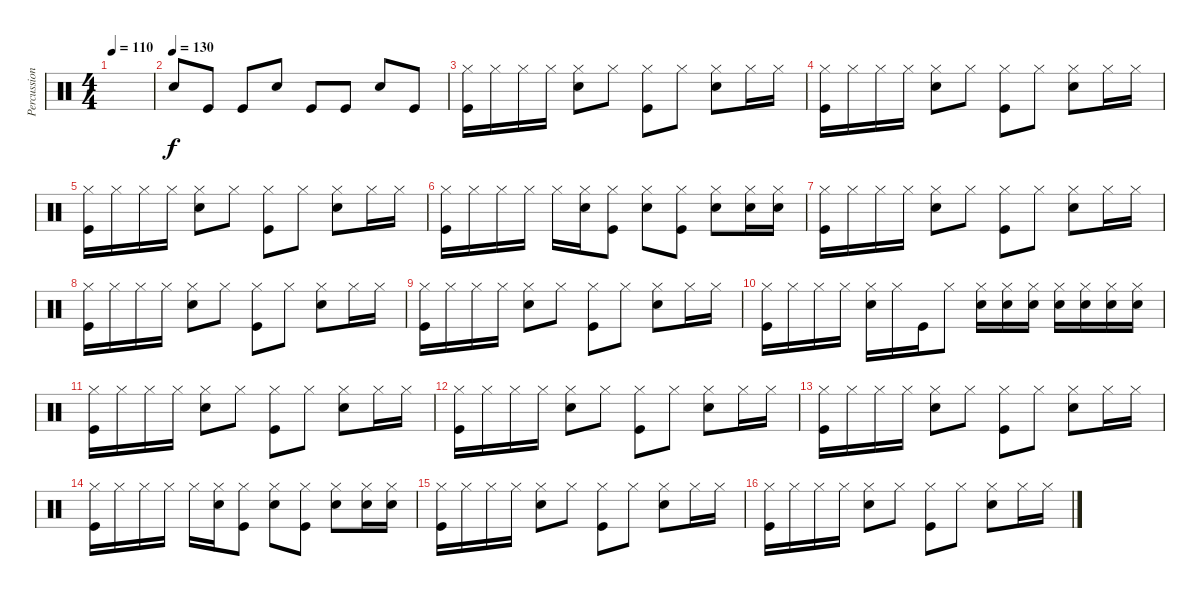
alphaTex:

\track ("Percussions" "Percussion") {instrument percussion}
\staff {score}
\articulation defaults
\ts (4 4)
\tempo 110
\clef neutral
\ks c
|
\tempo (130)
"Snare (hit) 2".8 "Kick (hit)".8 "Kick (hit)".8 "Snare (hit) 2".8 "Kick (hit)".8 "Kick (hit)".8 "Snare (hit) 2".8 "Kick (hit)".8 |
("Hi-Hat (closed)" "Kick (hit)").16 "Hi-Hat (closed)".16 "Hi-Hat (closed)".16 "Hi-Hat (closed)".16 ("Hi-Hat (closed)" "Snare (hit) 2").8 "Hi-Hat (closed)".8 ("Hi-Hat (closed)" "Kick (hit)").8 "Hi-Hat (closed)".8 ("Hi-Hat (closed)" "Snare (hit) 2").8 "Hi-Hat (closed)".16 "Hi-Hat (closed)".16 |
("Hi-Hat (closed)" "Kick (hit)").16 "Hi-Hat (closed)".16 "Hi-Hat (closed)".16 "Hi-Hat (closed)".16 ("Hi-Hat (closed)" "Snare (hit) 2").8 "Hi-Hat (closed)".8 ("Hi-Hat (closed)" "Kick (hit)").8 "Hi-Hat (closed)".8 ("Hi-Hat (closed)" "Snare (hit) 2").8 "Hi-Hat (closed)".16 "Hi-Hat (closed)".16 |
("Hi-Hat (closed)" "Kick (hit)").16 "Hi-Hat (closed)".16 "Hi-Hat (closed)".16 "Hi-Hat (closed)".16 ("Hi-Hat (closed)" "Snare (hit) 2").8 "Hi-Hat (closed)".8 ("Hi-Hat (closed)" "Kick (hit)").8 "Hi-Hat (closed)".8 ("Hi-Hat (closed)" "Snare (hit) 2").8 "Hi-Hat (closed)".16 "Hi-Hat (closed)".16 |
("Hi-Hat (closed)" "Kick (hit)").16 "Hi-Hat (closed)".16 "Hi-Hat (closed)".16 "Hi-Hat (closed)".16 "Hi-Hat (closed)".16 ("Hi-Hat (closed)" "Snare (hit) 2").16 ("Hi-Hat (closed)" "Kick (hit)").8 ("Hi-Hat (closed)" "Snare (hit) 2").8 ("Hi-Hat (closed)" "Kick (hit)").8 ("Hi-Hat (closed)" "Snare (hit) 2").8 ("Hi-Hat (closed)" "Snare (hit) 2").16 ("Hi-Hat (closed)" "Snare (hit) 2").16 |
("Hi-Hat (closed)" "Kick (hit)").16 "Hi-Hat (closed)".16 "Hi-Hat (closed)".16 "Hi-Hat (closed)".16 ("Hi-Hat (closed)" "Snare (hit) 2").8 "Hi-Hat (closed)".8 ("Hi-Hat (closed)" "Kick (hit)").8 "Hi-Hat (closed)".8 ("Hi-Hat (closed)" "Snare (hit) 2").8 "Hi-Hat (closed)".16 "Hi-Hat (closed)".16 |
("Hi-Hat (closed)" "Kick (hit)").16 "Hi-Hat (closed)".16 "Hi-Hat (closed)".16 "Hi-Hat (closed)".16 ("Hi-Hat (closed)" "Snare (hit) 2").8 "Hi-Hat (closed)".8 ("Hi-Hat (closed)" "Kick (hit)").8 "Hi-Hat (closed)".8 ("Hi-Hat (closed)" "Snare (hit) 2").8 "Hi-Hat (closed)".16 "Hi-Hat (closed)".16 |
("Hi-Hat (closed)" "Kick (hit)").16 "Hi-Hat (closed)".16 "Hi-Hat (closed)".16 "Hi-Hat (closed)".16 ("Hi-Hat (closed)" "Snare (hit) 2").8 "Hi-Hat (closed)".8 ("Hi-Hat (closed)" "Kick (hit)").8 "Hi-Hat (closed)".8 ("Hi-Hat (closed)" "Snare (hit) 2").8 "Hi-Hat (closed)".16 "Hi-Hat (closed)".16 |
("Hi-Hat (closed)" "Kick (hit)").16 "Hi-Hat (closed)".16 "Hi-Hat (closed)".16 "Hi-Hat (closed)".16 ("Hi-Hat (closed)" "Snare (hit) 2").16 "Hi-Hat (closed)".16 "Kick (hit)".16 "Hi-Hat (closed)".8 ("Hi-Hat (closed)" "Snare (hit) 2").16 ("Hi-Hat (closed)" "Snare (hit) 2").16 ("Hi-Hat (closed)" "Snare (hit) 2").16 ("Hi-Hat (closed)" "Snare (hit) 2").16 ("Hi-Hat (closed)" "Snare (hit) 2").16 ("Hi-Hat (closed)" "Snare (hit) 2").16 ("Hi-Hat (closed)" "Snare (hit) 2").16 |
("Hi-Hat (closed)" "Kick (hit)").16 "Hi-Hat (closed)".16 "Hi-Hat (closed)".16 "Hi-Hat (closed)".16 ("Hi-Hat (closed)" "Snare (hit) 2").8 "Hi-Hat (closed)".8 ("Hi-Hat (closed)" "Kick (hit)").8 "Hi-Hat (closed)".8 ("Hi-Hat (closed)" "Snare (hit) 2").8 "Hi-Hat (closed)".16 "Hi-Hat (closed)".16 |
("Hi-Hat (closed)" "Kick (hit)").16 "Hi-Hat (closed)".16 "Hi-Hat (closed)".16 "Hi-Hat (closed)".16 ("Hi-Hat (closed)" "Snare (hit) 2").8 "Hi-Hat (closed)".8 ("Hi-Hat (closed)" "Kick (hit)").8 "Hi-Hat (closed)".8 ("Hi-Hat (closed)" "Snare (hit) 2").8 "Hi-Hat (closed)".16 "Hi-Hat (closed)".16 |
("Hi-Hat (closed)" "Kick (hit)").16 "Hi-Hat (closed)".16 "Hi-Hat (closed)".16 "Hi-Hat (closed)".16 ("Hi-Hat (closed)" "Snare (hit) 2").8 "Hi-Hat (closed)".8 ("Hi-Hat (closed)" "Kick (hit)").8 "Hi-Hat (closed)".8 ("Hi-Hat (closed)" "Snare (hit) 2").8 "Hi-Hat (closed)".16 "Hi-Hat (closed)".16 |
("Hi-Hat (closed)" "Kick (hit)").16 "Hi-Hat (closed)".16 "Hi-Hat (closed)".16 "Hi-Hat (closed)".16 "Hi-Hat (closed)".16 ("Hi-Hat (closed)" "Snare (hit) 2").16 ("Hi-Hat (closed)" "Kick (hit)").8 ("Hi-Hat (closed)" "Snare (hit) 2").8 ("Hi-Hat (closed)" "Kick (hit)").8 ("Hi-Hat (closed)" "Snare (hit) 2").8 ("Hi-Hat (closed)" "Snare (hit) 2").16 ("Hi-Hat (closed)" "Snare (hit) 2").16 |
("Hi-Hat (closed)" "Kick (hit)").16 "Hi-Hat (closed)".16 "Hi-Hat (closed)".16 "Hi-Hat (closed)".16 ("Hi-Hat (closed)" "Snare (hit) 2").8 "Hi-Hat (closed)".8 ("Hi-Hat (closed)" "Kick (hit)").8 "Hi-Hat (closed)".8 ("Hi-Hat (closed)" "Snare (hit) 2").8 "Hi-Hat (closed)".16 "Hi-Hat (closed)".16 |
("Hi-Hat (closed)" "Kick (hit)").16 "Hi-Hat (closed)".16 "Hi-Hat (closed)".16 "Hi-Hat (closed)".16 ("Hi-Hat (closed)" "Snare (hit) 2").8 "Hi-Hat (closed)".8 ("Hi-Hat (closed)" "Kick (hit)").8 "Hi-Hat (closed)".8 ("Hi-Hat (closed)" "Snare (hit) 2").8 "Hi-Hat (closed)".16 "Hi-Hat (closed)".16
